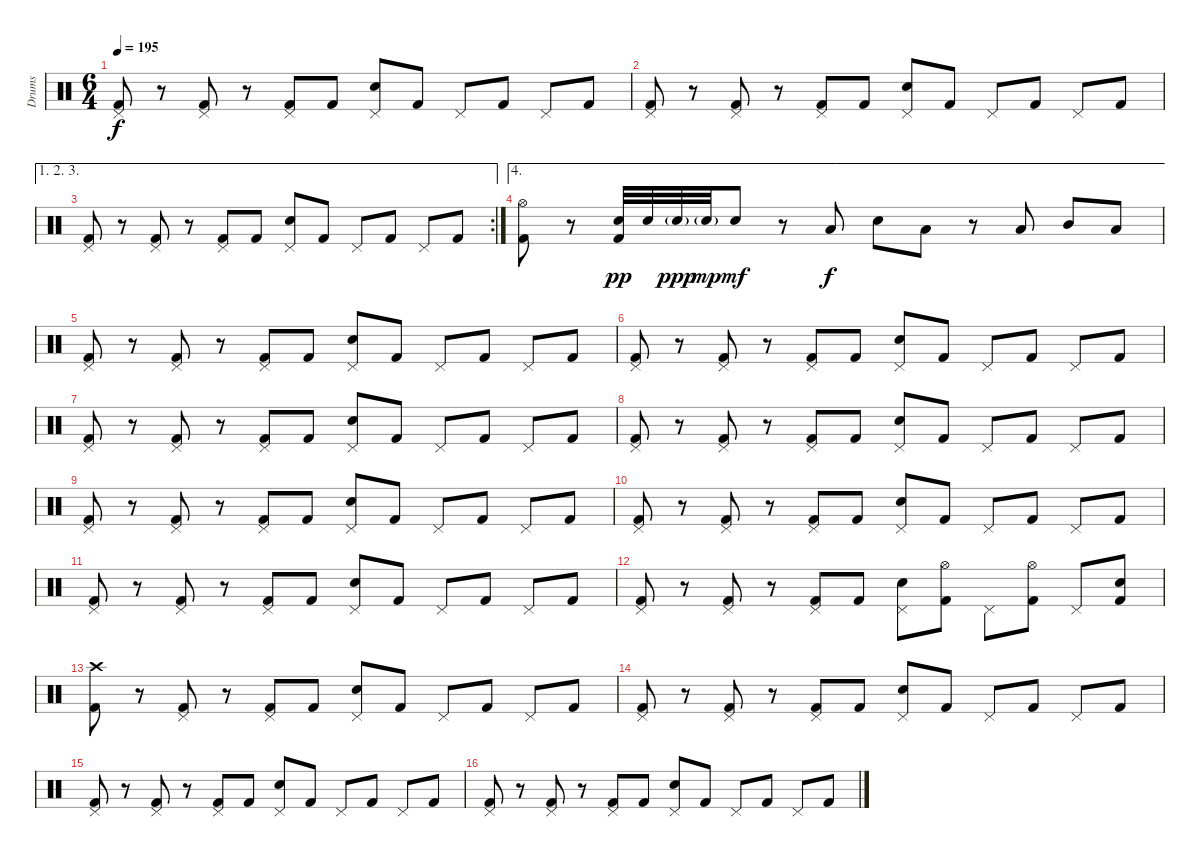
\track ("Drums" "Drums") {instrument percussion}
\staff {score}
\articulation defaults
\ts (6 4)
\tempo 195
\clef neutral
\ks c
("Pedal Hi-Hat (hit)" "Kick (hit) 2").8{dy f} r.8 ("Pedal Hi-Hat (hit)" "Kick (hit) 2").8 r.8 ("Pedal Hi-Hat (hit)" "Kick (hit) 2").8 "Kick (hit) 2".8 ("Pedal Hi-Hat (hit)" "Electric Snare (hit)").8 "Kick (hit) 2".8 "Pedal Hi-Hat (hit)".8 "Kick (hit) 2".8 "Pedal Hi-Hat (hit)".8 "Kick (hit) 2".8 |
("Pedal Hi-Hat (hit)" "Kick (hit) 2").8 r.8 ("Pedal Hi-Hat (hit)" "Kick (hit) 2").8 r.8 ("Pedal Hi-Hat (hit)" "Kick (hit) 2").8 "Kick (hit) 2".8 ("Pedal Hi-Hat (hit)" "Electric Snare (hit)").8 "Kick (hit) 2".8 "Pedal Hi-Hat (hit)".8 "Kick (hit) 2".8 "Pedal Hi-Hat (hit)".8 "Kick (hit) 2".8 |
\ae (1 2 3)
\rc 2
("Pedal Hi-Hat (hit)" "Kick (hit) 2").8 r.8 ("Pedal Hi-Hat (hit)" "Kick (hit) 2").8 r.8 ("Pedal Hi-Hat (hit)" "Kick (hit) 2").8 "Kick (hit) 2".8 ("Pedal Hi-Hat (hit)" "Electric Snare (hit)").8 "Kick (hit) 2".8 "Pedal Hi-Hat (hit)".8 "Kick (hit) 2".8 "Pedal Hi-Hat (hit)".8 "Kick (hit) 2".8 |
\ae 4
("Hi-Hat (open)" "Kick (hit) 2").8 r.8 ("Electric Snare (hit)" "Kick (hit) 2").32{dy pp} "Electric Snare (hit)".32 "Electric Snare (hit)"{g}.32{dy ppp} "Electric Snare (hit)"{g}.32{dy mp} "Electric Snare (hit)".8{dy mf} r.8 "Low Tom (hit)".8{dy f} "Electric Snare (hit)".8 "Low Tom (hit)".8 r.8 "Low Tom (hit)".8 "Mid Tom (hit)".8 "Low Tom (hit)".8 |
("Pedal Hi-Hat (hit)" "Kick (hit) 2").8 r.8 ("Pedal Hi-Hat (hit)" "Kick (hit) 2").8 r.8 ("Pedal Hi-Hat (hit)" "Kick (hit) 2").8 "Kick (hit) 2".8 ("Pedal Hi-Hat (hit)" "Electric Snare (hit)").8 "Kick (hit) 2".8 "Pedal Hi-Hat (hit)".8 "Kick (hit) 2".8 "Pedal Hi-Hat (hit)".8 "Kick (hit) 2".8 |
("Pedal Hi-Hat (hit)" "Kick (hit) 2").8 r.8 ("Pedal Hi-Hat (hit)" "Kick (hit) 2").8 r.8 ("Pedal Hi-Hat (hit)" "Kick (hit) 2").8 "Kick (hit) 2".8 ("Pedal Hi-Hat (hit)" "Electric Snare (hit)").8 "Kick (hit) 2".8 "Pedal Hi-Hat (hit)".8 "Kick (hit) 2".8 "Pedal Hi-Hat (hit)".8 "Kick (hit) 2".8 |
("Pedal Hi-Hat (hit)" "Kick (hit) 2").8 r.8 ("Pedal Hi-Hat (hit)" "Kick (hit) 2").8 r.8 ("Pedal Hi-Hat (hit)" "Kick (hit) 2").8 "Kick (hit) 2".8 ("Pedal Hi-Hat (hit)" "Electric Snare (hit)").8 "Kick (hit) 2".8 "Pedal Hi-Hat (hit)".8 "Kick (hit) 2".8 "Pedal Hi-Hat (hit)".8 "Kick (hit) 2".8 |
("Pedal Hi-Hat (hit)" "Kick (hit) 2").8 r.8 ("Pedal Hi-Hat (hit)" "Kick (hit) 2").8 r.8 ("Pedal Hi-Hat (hit)" "Kick (hit) 2").8 "Kick (hit) 2".8 ("Pedal Hi-Hat (hit)" "Electric Snare (hit)").8 "Kick (hit) 2".8 "Pedal Hi-Hat (hit)".8 "Kick (hit) 2".8 "Pedal Hi-Hat (hit)".8 "Kick (hit) 2".8 |
("Pedal Hi-Hat (hit)" "Kick (hit) 2").8 r.8 ("Pedal Hi-Hat (hit)" "Kick (hit) 2").8 r.8 ("Pedal Hi-Hat (hit)" "Kick (hit) 2").8 "Kick (hit) 2".8 ("Pedal Hi-Hat (hit)" "Electric Snare (hit)").8 "Kick (hit) 2".8 "Pedal Hi-Hat (hit)".8 "Kick (hit) 2".8 "Pedal Hi-Hat (hit)".8 "Kick (hit) 2".8 |
("Pedal Hi-Hat (hit)" "Kick (hit) 2").8 r.8 ("Pedal Hi-Hat (hit)" "Kick (hit) 2").8 r.8 ("Pedal Hi-Hat (hit)" "Kick (hit) 2").8 "Kick (hit) 2".8 ("Pedal Hi-Hat (hit)" "Electric Snare (hit)").8 "Kick (hit) 2".8 "Pedal Hi-Hat (hit)".8 "Kick (hit) 2".8 "Pedal Hi-Hat (hit)".8 "Kick (hit) 2".8 |
("Pedal Hi-Hat (hit)" "Kick (hit) 2").8 r.8 ("Pedal Hi-Hat (hit)" "Kick (hit) 2").8 r.8 ("Pedal Hi-Hat (hit)" "Kick (hit) 2").8 "Kick (hit) 2".8 ("Pedal Hi-Hat (hit)" "Electric Snare (hit)").8 "Kick (hit) 2".8 "Pedal Hi-Hat (hit)".8 "Kick (hit) 2".8 "Pedal Hi-Hat (hit)".8 "Kick (hit) 2".8 |
("Pedal Hi-Hat (hit)" "Kick (hit) 2").8 r.8 ("Pedal Hi-Hat (hit)" "Kick (hit) 2").8 r.8 ("Pedal Hi-Hat (hit)" "Kick (hit) 2").8 "Kick (hit) 2".8 ("Pedal Hi-Hat (hit)" "Electric Snare (hit)").8 ("Hi-Hat (open)" "Kick (hit) 2").8 "Pedal Hi-Hat (hit)".8 ("Hi-Hat (open)" "Kick (hit) 2").8 "Pedal Hi-Hat (hit)".8 ("Electric Snare (hit)" "Kick (hit) 2").8 |
("Crash high (hit)" "Kick (hit) 2").8 r.8 ("Pedal Hi-Hat (hit)" "Kick (hit) 2").8 r.8 ("Pedal Hi-Hat (hit)" "Kick (hit) 2").8 "Kick (hit) 2".8 ("Pedal Hi-Hat (hit)" "Electric Snare (hit)").8 "Kick (hit) 2".8 "Pedal Hi-Hat (hit)".8 "Kick (hit) 2".8 "Pedal Hi-Hat (hit)".8 "Kick (hit) 2".8 |
("Pedal Hi-Hat (hit)" "Kick (hit) 2").8 r.8 ("Pedal Hi-Hat (hit)" "Kick (hit) 2").8 r.8 ("Pedal Hi-Hat (hit)" "Kick (hit) 2").8 "Kick (hit) 2".8 ("Pedal Hi-Hat (hit)" "Electric Snare (hit)").8 "Kick (hit) 2".8 "Pedal Hi-Hat (hit)".8 "Kick (hit) 2".8 "Pedal Hi-Hat (hit)".8 "Kick (hit) 2".8 |
("Pedal Hi-Hat (hit)" "Kick (hit) 2").8 r.8 ("Pedal Hi-Hat (hit)" "Kick (hit) 2").8 r.8 ("Pedal Hi-Hat (hit)" "Kick (hit) 2").8 "Kick (hit) 2".8 ("Pedal Hi-Hat (hit)" "Electric Snare (hit)").8 "Kick (hit) 2".8 "Pedal Hi-Hat (hit)".8 "Kick (hit) 2".8 "Pedal Hi-Hat (hit)".8 "Kick (hit) 2".8 |
("Pedal Hi-Hat (hit)" "Kick (hit) 2").8 r.8 ("Pedal Hi-Hat (hit)" "Kick (hit) 2").8 r.8 ("Pedal Hi-Hat (hit)" "Kick (hit) 2").8 "Kick (hit) 2".8 ("Pedal Hi-Hat (hit)" "Electric Snare (hit)").8 "Kick (hit) 2".8 "Pedal Hi-Hat (hit)".8 "Kick (hit) 2".8 "Pedal Hi-Hat (hit)".8 "Kick (hit) 2".8
